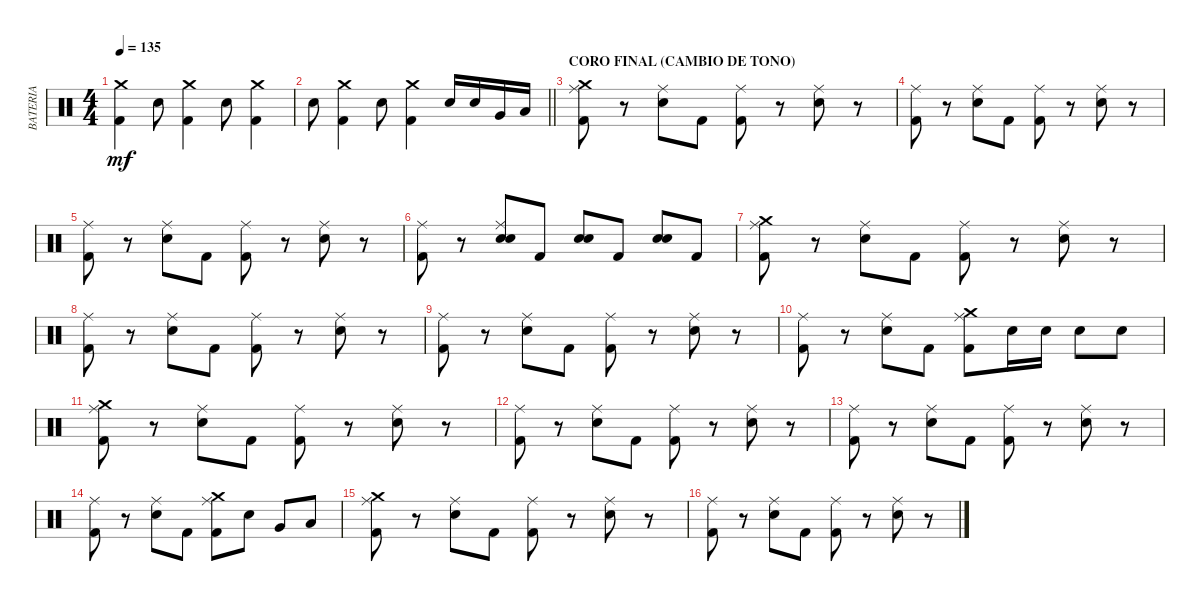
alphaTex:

\track ("BATERIA" "BATERIA") {instrument percussion}
\staff {score}
\articulation defaults
\ts (4 4)
\tempo 135
\clef neutral
\ks c
("Crash medium (hit)" "Kick (hit) 2").4{dy mf} "Electric Snare (hit)".8 ("Crash medium (hit)" "Kick (hit) 2").4 "Electric Snare (hit)".8 ("Crash medium (hit)" "Kick (hit) 2").4 |
\barLineRight lightlight "Electric Snare (hit)".8
("Crash medium (hit)" "Kick (hit) 2").4 "Electric Snare (hit)".8 ("Crash medium (hit)" "Kick (hit) 2").4 "Electric Snare (hit)".16 "Electric Snare (hit)".16 "Very Low Tom (hit)".16 "Low Floor Tom (hit)".16 |
\section ("" "CORO FINAL (CAMBIO DE TONO)")
("Crash medium (hit)" "Ride (middle)" "Kick (hit) 2").8 r.8 ("Ride (middle)" "Electric Snare (hit)").8 "Kick (hit) 2".8 ("Ride (middle)" "Kick (hit) 2").8 r.8 ("Ride (middle)" "Electric Snare (hit)").8 r.8 |
("Ride (middle)" "Kick (hit) 2").8 r.8 ("Ride (middle)" "Electric Snare (hit)").8 "Kick (hit) 2".8 ("Ride (middle)" "Kick (hit) 2").8 r.8 ("Ride (middle)" "Electric Snare (hit)").8 r.8 |
("Ride (middle)" "Kick (hit) 2").8 r.8 ("Ride (middle)" "Electric Snare (hit)").8 "Kick (hit) 2".8 ("Ride (middle)" "Kick (hit) 2").8 r.8 ("Ride (middle)" "Electric Snare (hit)").8 r.8 |
("Ride (middle)" "Kick (hit) 2").8 r.8 ("Ride (middle)" "Electric Snare (hit)" "Snare (hit) 2").8 "Kick (hit) 2".8 ("Electric Snare (hit)" "Snare (hit) 2").8 "Kick (hit) 2".8 ("Electric Snare (hit)" "Snare (hit) 2").8 "Kick (hit) 2".8 |
("Crash medium (hit)" "Ride (middle)" "Kick (hit) 2").8 r.8 ("Ride (middle)" "Electric Snare (hit)").8 "Kick (hit) 2".8 ("Ride (middle)" "Kick (hit) 2").8 r.8 ("Ride (middle)" "Electric Snare (hit)").8 r.8 |
("Ride (middle)" "Kick (hit) 2").8 r.8 ("Ride (middle)" "Electric Snare (hit)").8 "Kick (hit) 2".8 ("Ride (middle)" "Kick (hit) 2").8 r.8 ("Ride (middle)" "Electric Snare (hit)").8 r.8 |
("Ride (middle)" "Kick (hit) 2").8 r.8 ("Ride (middle)" "Electric Snare (hit)").8 "Kick (hit) 2".8 ("Ride (middle)" "Kick (hit) 2").8 r.8 ("Ride (middle)" "Electric Snare (hit)").8 r.8 |
("Ride (middle)" "Kick (hit) 2").8 r.8 ("Ride (middle)" "Electric Snare (hit)").8 "Kick (hit) 2".8 ("Crash medium (hit)" "Ride (middle)" "Kick (hit) 2").8 "Electric Snare (hit)".16 "Electric Snare (hit)".16 "Electric Snare (hit)".8 "Electric Snare (hit)".8 |
("Crash medium (hit)" "Ride (middle)" "Kick (hit) 2").8 r.8 ("Ride (middle)" "Electric Snare (hit)").8 "Kick (hit) 2".8 ("Ride (middle)" "Kick (hit) 2").8 r.8 ("Ride (middle)" "Electric Snare (hit)").8 r.8 |
("Ride (middle)" "Kick (hit) 2").8 r.8 ("Ride (middle)" "Electric Snare (hit)").8 "Kick (hit) 2".8 ("Ride (middle)" "Kick (hit) 2").8 r.8 ("Ride (middle)" "Electric Snare (hit)").8 r.8 |
("Ride (middle)" "Kick (hit) 2").8 r.8 ("Ride (middle)" "Electric Snare (hit)").8 "Kick (hit) 2".8 ("Ride (middle)" "Kick (hit) 2").8 r.8 ("Ride (middle)" "Electric Snare (hit)").8 r.8 |
("Ride (middle)" "Kick (hit) 2").8 r.8 ("Ride (middle)" "Electric Snare (hit)").8 "Kick (hit) 2".8 ("Crash medium (hit)" "Ride (middle)" "Kick (hit) 2").8 "Electric Snare (hit)".8 "Very Low Tom (hit)".8 "Low Floor Tom (hit)".8 |
("Crash medium (hit)" "Ride (middle)" "Kick (hit) 2").8 r.8 ("Ride (middle)" "Electric Snare (hit)").8 "Kick (hit) 2".8 ("Ride (middle)" "Kick (hit) 2").8 r.8 ("Ride (middle)" "Electric Snare (hit)").8 r.8 |
("Ride (middle)" "Kick (hit) 2").8 r.8 ("Ride (middle)" "Electric Snare (hit)").8 "Kick (hit) 2".8 ("Ride (middle)" "Kick (hit) 2").8 r.8 ("Ride (middle)" "Electric Snare (hit)").8 r.8
